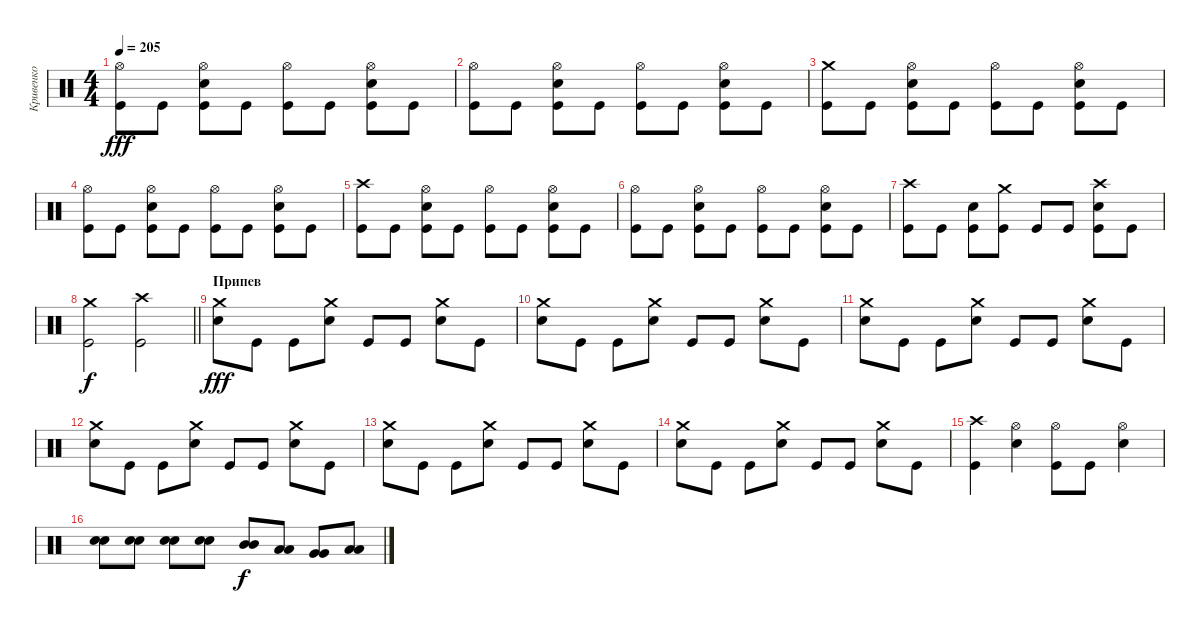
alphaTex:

\track ("Кривенко" "Кривенко") {instrument percussion}
\staff {score}
\articulation defaults
\ts (4 4)
\tempo 205
\clef neutral
\ks c
("Hi-Hat (open)" "Kick (hit)").8{dy fff} "Kick (hit)".8 ("Hi-Hat (open)" "Electric Snare (hit)" "Kick (hit)").8 "Kick (hit)".8 ("Hi-Hat (open)" "Kick (hit)").8 "Kick (hit)".8 ("Hi-Hat (open)" "Electric Snare (hit)" "Kick (hit)").8 "Kick (hit)".8 |
("Hi-Hat (open)" "Kick (hit)").8 "Kick (hit)".8 ("Hi-Hat (open)" "Electric Snare (hit)" "Kick (hit)").8 "Kick (hit)".8 ("Hi-Hat (open)" "Kick (hit)").8 "Kick (hit)".8 ("Hi-Hat (open)" "Electric Snare (hit)" "Kick (hit)").8 "Kick (hit)".8 |
("Crash medium (hit)" "Kick (hit)").8 "Kick (hit)".8 ("Hi-Hat (open)" "Electric Snare (hit)" "Kick (hit)").8 "Kick (hit)".8 ("Hi-Hat (open)" "Kick (hit)").8 "Kick (hit)".8 ("Hi-Hat (open)" "Electric Snare (hit)" "Kick (hit)").8 "Kick (hit)".8 |
("Hi-Hat (open)" "Kick (hit)").8 "Kick (hit)".8 ("Hi-Hat (open)" "Electric Snare (hit)" "Kick (hit)").8 "Kick (hit)".8 ("Hi-Hat (open)" "Kick (hit)").8 "Kick (hit)".8 ("Hi-Hat (open)" "Electric Snare (hit)" "Kick (hit)").8 "Kick (hit)".8 |
("Crash high (hit)" "Kick (hit)").8 "Kick (hit)".8 ("Hi-Hat (open)" "Electric Snare (hit)" "Kick (hit)").8 "Kick (hit)".8 ("Hi-Hat (open)" "Kick (hit)").8 "Kick (hit)".8 ("Hi-Hat (open)" "Electric Snare (hit)" "Kick (hit)").8 "Kick (hit)".8 |
("Hi-Hat (open)" "Kick (hit)").8 "Kick (hit)".8 ("Hi-Hat (open)" "Electric Snare (hit)" "Kick (hit)").8 "Kick (hit)".8 ("Hi-Hat (open)" "Kick (hit)").8 "Kick (hit)".8 ("Hi-Hat (open)" "Electric Snare (hit)" "Kick (hit)").8 "Kick (hit)".8 |
("Crash high (hit)" "Kick (hit)").8 "Kick (hit)".8 ("Electric Snare (hit)" "Kick (hit)").8 ("Crash medium (hit)" "Kick (hit)").8 "Kick (hit)".8 "Kick (hit)".8 ("Crash high (hit)" "Electric Snare (hit)" "Kick (hit)").8 "Kick (hit)".8 |
\barLineRight lightlight
("Crash medium (hit)" "Kick (hit)").2{dy f} ("Crash high (hit)" "Kick (hit)").2 |
\section ("" "Припев")
("Crash medium (hit)" "Electric Snare (hit)").8{dy fff} "Kick (hit)".8 "Kick (hit)".8 ("Crash medium (hit)" "Electric Snare (hit)").8 "Kick (hit)".8 "Kick (hit)".8 ("Crash medium (hit)" "Electric Snare (hit)").8 "Kick (hit)".8 |
("Crash medium (hit)" "Electric Snare (hit)").8 "Kick (hit)".8 "Kick (hit)".8 ("Crash medium (hit)" "Electric Snare (hit)").8 "Kick (hit)".8 "Kick (hit)".8 ("Crash medium (hit)" "Electric Snare (hit)").8 "Kick (hit)".8 |
("Crash medium (hit)" "Electric Snare (hit)").8 "Kick (hit)".8 "Kick (hit)".8 ("Crash medium (hit)" "Electric Snare (hit)").8 "Kick (hit)".8 "Kick (hit)".8 ("Crash medium (hit)" "Electric Snare (hit)").8 "Kick (hit)".8 |
("Crash medium (hit)" "Electric Snare (hit)").8 "Kick (hit)".8 "Kick (hit)".8 ("Crash medium (hit)" "Electric Snare (hit)").8 "Kick (hit)".8 "Kick (hit)".8 ("Crash medium (hit)" "Electric Snare (hit)").8 "Kick (hit)".8 |
("Crash medium (hit)" "Electric Snare (hit)").8 "Kick (hit)".8 "Kick (hit)".8 ("Crash medium (hit)" "Electric Snare (hit)").8 "Kick (hit)".8 "Kick (hit)".8 ("Crash medium (hit)" "Electric Snare (hit)").8 "Kick (hit)".8 |
("Crash medium (hit)" "Electric Snare (hit)").8 "Kick (hit)".8 "Kick (hit)".8 ("Crash medium (hit)" "Electric Snare (hit)").8 "Kick (hit)".8 "Kick (hit)".8 ("Crash medium (hit)" "Electric Snare (hit)").8 "Kick (hit)".8 |
("Crash high (hit)" "Kick (hit)").4 ("Hi-Hat (open)" "Electric Snare (hit)").4 ("Hi-Hat (open)" "Kick (hit)").8 "Kick (hit)".8 ("Hi-Hat (open)" "Electric Snare (hit)").4 |
("Electric Snare (hit)" "Electric Snare (hit)").8 ("Electric Snare (hit)" "Electric Snare (hit)").8 ("Electric Snare (hit)" "Electric Snare (hit)").8 ("Electric Snare (hit)" "Electric Snare (hit)").8 ("Mid Tom (hit)" "Mid Tom (hit)").8{dy f} ("Low Tom (hit)" "Low Tom (hit)").8 ("Very Low Tom (hit)" "Very Low Tom (hit)").8 ("Low Floor Tom (hit)" "Low Floor Tom (hit)").8
